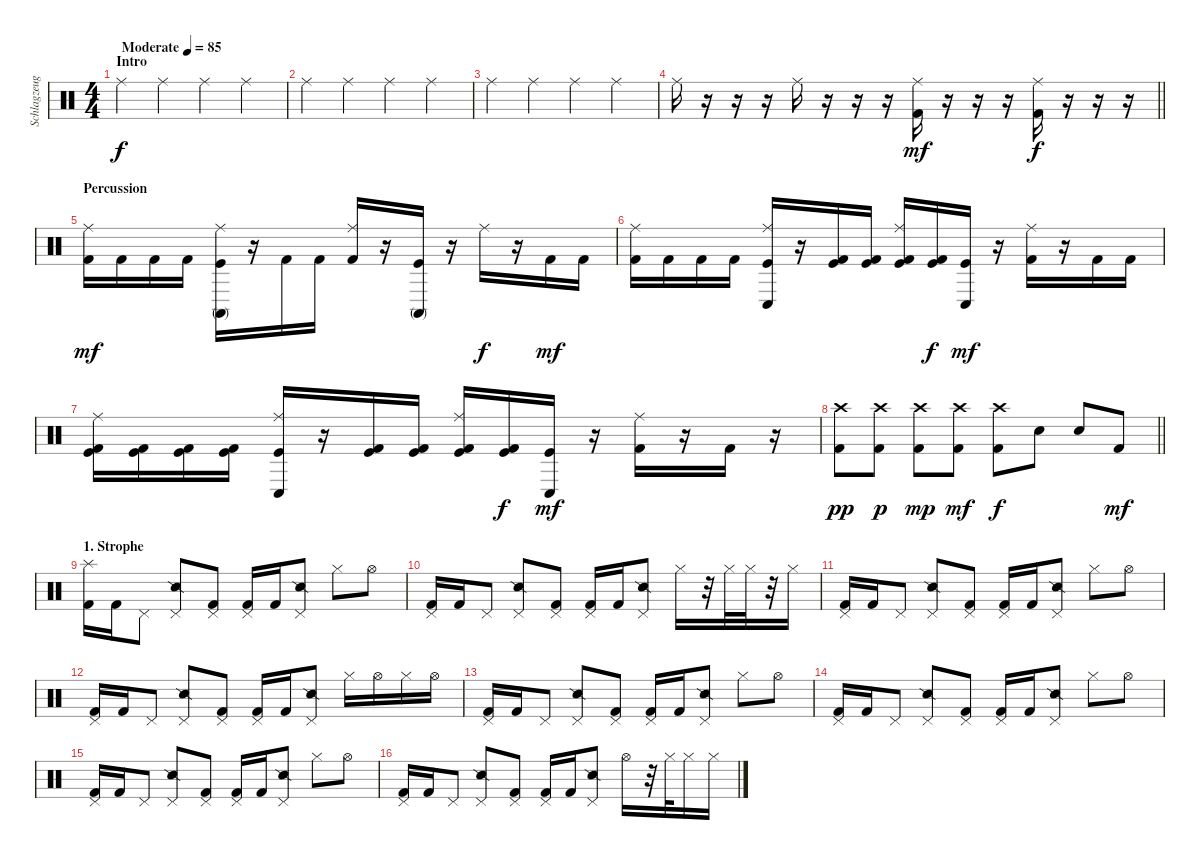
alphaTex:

\track ("Schlagzeug" "Schlagzeug") {instrument percussion}
\staff {score}
\articulation defaults
\ts (4 4)
\section ("" "Intro")
\tempo (85 "Moderate")
\clef neutral
\ks c "Ride (middle)".4{dy f} "Ride (middle)".4 "Ride (middle)".4 "Ride (middle)".4
|
"Ride (middle)".4 "Ride (middle)".4 "Ride (middle)".4 "Ride (middle)".4 |
"Ride (middle)".4 "Ride (middle)".4 "Ride (middle)".4 "Ride (middle)".4 |
\barLineRight lightlight "Ride (middle)".16
r.16 r.16 r.16 "Ride (middle)".16 r.16 r.16 r.16 ("Ride (middle)" "Kick (hit) 2").16{dy mf} r.16 r.16 r.16 ("Ride (middle)" "Kick (hit) 2").16{dy f} r.16 r.16 r.16 |
\section ("" "Percussion")
("Ride (middle)" "Kick (hit) 2").16{dy mf} "Kick (hit) 2".16 "Kick (hit) 2".16 "Kick (hit) 2".16 ("Ride (middle)" "Conga high (mute)" "Kick (hit)").16 r.16 "Kick (hit) 2".16 "Kick (hit) 2".16 ("Ride (middle)" "Kick (hit) 2").16 r.16 ("Conga high (mute)" "Kick (hit)").16 r.16 "Ride (middle)".16{dy f} r.16 "Kick (hit) 2".16{dy mf} "Kick (hit) 2".16 |
("Ride (middle)" "Kick (hit) 2").16 "Kick (hit) 2".16 "Kick (hit) 2".16 "Kick (hit) 2".16 ("Ride (middle)" "Conga low (hit)" "Kick (hit)").16 r.16 ("Kick (hit)" "Kick (hit) 2").16 ("Kick (hit)" "Kick (hit) 2").16 ("Ride (middle)" "Kick (hit)" "Kick (hit) 2").16 ("Kick (hit)" "Kick (hit) 2").16{dy f} ("Conga low (hit)" "Kick (hit)").16{dy mf} r.16 ("Ride (middle)" "Kick (hit) 2").16 r.16 "Kick (hit) 2".16 "Kick (hit) 2".16 |
("Ride (middle)" "Kick (hit)" "Kick (hit) 2").16 ("Kick (hit)" "Kick (hit) 2").16 ("Kick (hit)" "Kick (hit) 2").16 ("Kick (hit)" "Kick (hit) 2").16 ("Ride (middle)" "Conga low (hit)" "Kick (hit)").16 r.16 ("Kick (hit)" "Kick (hit) 2").16 ("Kick (hit)" "Kick (hit) 2").16 ("Ride (middle)" "Kick (hit)" "Kick (hit) 2").16 ("Kick (hit)" "Kick (hit) 2").16{dy f} ("Conga low (hit)" "Kick (hit)").16{dy mf} r.16 ("Ride (middle)" "Kick (hit) 2").16 r.16 "Kick (hit) 2".16 r.16 |
\barLineRight lightlight
("Crash high (hit)" "Kick (hit) 2").8{dy pp} ("Crash high (hit)" "Kick (hit) 2").8{dy p} ("Crash high (hit)" "Kick (hit) 2").8{dy mp} ("Crash high (hit)" "Kick (hit) 2").8{dy mf} ("Crash high (hit)" "Kick (hit) 2").8{dy f} "Snare (hit) 2".8 "Snare (hit) 2".8 "Kick (hit) 2".8{dy mf} |
\section ("" "1. Strophe")
("Splash (hit)" "Kick (hit) 2").16 "Kick (hit) 2".16 "Pedal Hi-Hat (hit)".8 ("Pedal Hi-Hat (hit)" "Snare (side stick) 2").8 ("Pedal Hi-Hat (hit)" "Kick (hit) 2").8 ("Pedal Hi-Hat (hit)" "Kick (hit) 2").16 "Kick (hit) 2".16 ("Pedal Hi-Hat (hit)" "Snare (side stick) 2").8 "Hi-Hat (closed)".8 "Hi-Hat (open)".8 |
("Pedal Hi-Hat (hit)" "Kick (hit) 2").16 "Kick (hit) 2".16 "Pedal Hi-Hat (hit)".8 ("Pedal Hi-Hat (hit)" "Snare (side stick) 2").8 ("Pedal Hi-Hat (hit)" "Kick (hit) 2").8 ("Pedal Hi-Hat (hit)" "Kick (hit) 2").16 "Kick (hit) 2".16 ("Pedal Hi-Hat (hit)" "Snare (side stick) 2").8 "Hi-Hat (closed)".16 r.32 "Hi-Hat (closed)".32 "Hi-Hat (closed)".32 r.32 "Hi-Hat (closed)".16 |
("Pedal Hi-Hat (hit)" "Kick (hit) 2").16 "Kick (hit) 2".16 "Pedal Hi-Hat (hit)".8 ("Pedal Hi-Hat (hit)" "Snare (side stick) 2").8 ("Pedal Hi-Hat (hit)" "Kick (hit) 2").8 ("Pedal Hi-Hat (hit)" "Kick (hit) 2").16 "Kick (hit) 2".16 ("Pedal Hi-Hat (hit)" "Snare (side stick) 2").8 "Hi-Hat (closed)".8 "Hi-Hat (open)".8 |
("Pedal Hi-Hat (hit)" "Kick (hit) 2").16 "Kick (hit) 2".16 "Pedal Hi-Hat (hit)".8 ("Pedal Hi-Hat (hit)" "Snare (side stick) 2").8 ("Pedal Hi-Hat (hit)" "Kick (hit) 2").8 ("Pedal Hi-Hat (hit)" "Kick (hit) 2").16 "Kick (hit) 2".16 ("Pedal Hi-Hat (hit)" "Snare (side stick) 2").8 "Hi-Hat (closed)".16 "Hi-Hat (open)".16 "Hi-Hat (closed)".16 "Hi-Hat (open)".16 |
("Pedal Hi-Hat (hit)" "Kick (hit) 2").16 "Kick (hit) 2".16 "Pedal Hi-Hat (hit)".8 ("Pedal Hi-Hat (hit)" "Snare (side stick) 2").8 ("Pedal Hi-Hat (hit)" "Kick (hit) 2").8 ("Pedal Hi-Hat (hit)" "Kick (hit) 2").16 "Kick (hit) 2".16 ("Pedal Hi-Hat (hit)" "Snare (side stick) 2").8 "Hi-Hat (closed)".8 "Hi-Hat (open)".8 |
("Pedal Hi-Hat (hit)" "Kick (hit) 2").16 "Kick (hit) 2".16 "Pedal Hi-Hat (hit)".8 ("Pedal Hi-Hat (hit)" "Snare (side stick) 2").8 ("Pedal Hi-Hat (hit)" "Kick (hit) 2").8 ("Pedal Hi-Hat (hit)" "Kick (hit) 2").16 "Kick (hit) 2".16 ("Pedal Hi-Hat (hit)" "Snare (side stick) 2").8 "Hi-Hat (closed)".8 "Hi-Hat (open)".8 |
("Pedal Hi-Hat (hit)" "Kick (hit) 2").16 "Kick (hit) 2".16 "Pedal Hi-Hat (hit)".8 ("Pedal Hi-Hat (hit)" "Snare (side stick) 2").8 ("Pedal Hi-Hat (hit)" "Kick (hit) 2").8 ("Pedal Hi-Hat (hit)" "Kick (hit) 2").16 "Kick (hit) 2".16 ("Pedal Hi-Hat (hit)" "Snare (side stick) 2").8 "Hi-Hat (closed)".8 "Hi-Hat (open)".8 |
("Pedal Hi-Hat (hit)" "Kick (hit) 2").16 "Kick (hit) 2".16 "Pedal Hi-Hat (hit)".8 ("Pedal Hi-Hat (hit)" "Snare (side stick) 2").8 ("Pedal Hi-Hat (hit)" "Kick (hit) 2").8 ("Pedal Hi-Hat (hit)" "Kick (hit) 2").16 "Kick (hit) 2".16 ("Pedal Hi-Hat (hit)" "Snare (side stick) 2").8 "Hi-Hat (open)".16 r.32 "Hi-Hat (closed)".32 "Hi-Hat (closed)".16 "Hi-Hat (closed)".16
